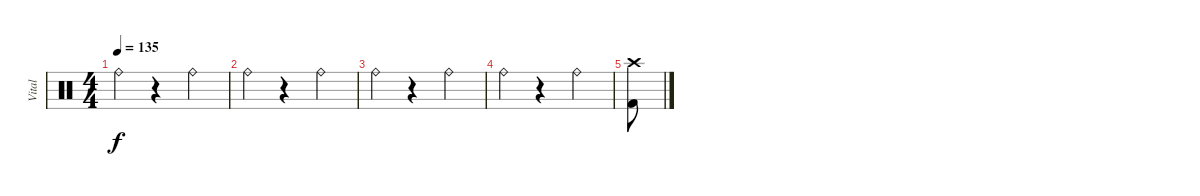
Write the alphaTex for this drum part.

\track ("Vital" "Vital") {instrument percussion}
\staff {score}
\articulation defaults
\ts (4 4)
\tempo 135
\clef neutral
\ks c "Ride (bell)".4{dy f}
r.4 "Ride (bell)".4 |
"Ride (bell)".4 r.4 "Ride (bell)".4 |
"Ride (bell)".4 r.4 "Ride (bell)".4 |
"Ride (bell)".4 r.4 "Ride (bell)".4 |
("Crash high (hit)" "Kick (hit) 2").8
